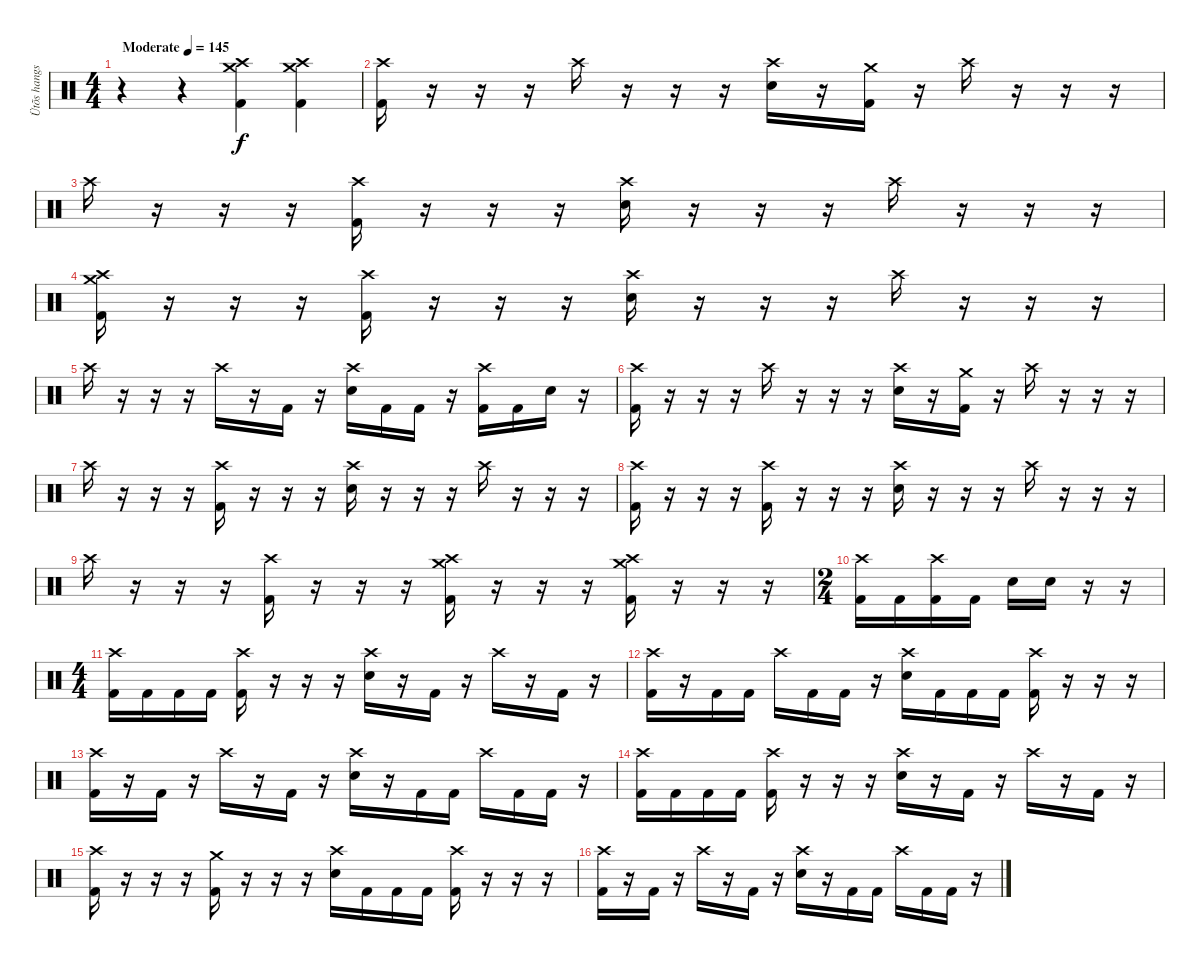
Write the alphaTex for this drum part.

\track ("Ütõs hangszer" "Ütõs hangs") {instrument percussion}
\staff {score}
\articulation defaults
\ts (4 4)
\tempo (145 "Moderate")
\clef neutral
\ks c
r.4{dy f} r.4 ("Crash high (hit)" "Crash medium (hit)" "Kick (hit) 2").4 ("Crash high (hit)" "Crash medium (hit)" "Kick (hit) 2").4 |
("Crash high (hit)" "Kick (hit) 2").16 r.16 r.16 r.16 "Crash high (hit)".16 r.16 r.16 r.16 ("Crash high (hit)" "Electric Snare (hit)").16 r.16 ("Crash medium (hit)" "Kick (hit) 2").16 r.16 "Crash high (hit)".16 r.16 r.16 r.16 |
"Crash high (hit)".16 r.16 r.16 r.16 ("Crash high (hit)" "Kick (hit) 2").16 r.16 r.16 r.16 ("Crash high (hit)" "Electric Snare (hit)").16 r.16 r.16 r.16 "Crash high (hit)".16 r.16 r.16 r.16 |
("Crash high (hit)" "Crash medium (hit)" "Kick (hit) 2").16 r.16 r.16 r.16 ("Crash high (hit)" "Kick (hit) 2").16 r.16 r.16 r.16 ("Crash high (hit)" "Electric Snare (hit)").16 r.16 r.16 r.16 "Crash high (hit)".16 r.16 r.16 r.16 |
"Crash high (hit)".16 r.16 r.16 r.16 "Crash high (hit)".16 r.16 "Kick (hit) 2".16 r.16 ("Crash high (hit)" "Electric Snare (hit)").16 "Kick (hit) 2".16 "Kick (hit) 2".16 r.16 ("Crash high (hit)" "Kick (hit) 2").16 "Kick (hit) 2".16 "Electric Snare (hit)".16 r.16 |
("Crash high (hit)" "Kick (hit) 2").16 r.16 r.16 r.16 "Crash high (hit)".16 r.16 r.16 r.16 ("Crash high (hit)" "Electric Snare (hit)").16 r.16 ("Crash medium (hit)" "Kick (hit) 2").16 r.16 "Crash high (hit)".16 r.16 r.16 r.16 |
"Crash high (hit)".16 r.16 r.16 r.16 ("Crash high (hit)" "Kick (hit) 2").16 r.16 r.16 r.16 ("Crash high (hit)" "Electric Snare (hit)").16 r.16 r.16 r.16 "Crash high (hit)".16 r.16 r.16 r.16 |
("Crash high (hit)" "Kick (hit) 2").16 r.16 r.16 r.16 ("Crash high (hit)" "Kick (hit) 2").16 r.16 r.16 r.16 ("Crash high (hit)" "Electric Snare (hit)").16 r.16 r.16 r.16 "Crash high (hit)".16 r.16 r.16 r.16 |
"Crash high (hit)".16 r.16 r.16 r.16 ("Crash high (hit)" "Kick (hit) 2").16 r.16 r.16 r.16 ("Crash high (hit)" "Crash medium (hit)" "Kick (hit) 2").16 r.16 r.16 r.16 ("Crash high (hit)" "Crash medium (hit)" "Kick (hit) 2").16 r.16 r.16 r.16 |
\ts (2 4)
("Crash high (hit)" "Kick (hit) 2").16 "Kick (hit) 2".16 ("Crash high (hit)" "Kick (hit) 2").16 "Kick (hit) 2".16 "Electric Snare (hit)".16 "Electric Snare (hit)".16 r.16 r.16 |
\ts (4 4)
("Crash high (hit)" "Kick (hit) 2").16 "Kick (hit) 2".16 "Kick (hit) 2".16 "Kick (hit) 2".16 ("Crash high (hit)" "Kick (hit) 2").16 r.16 r.16 r.16 ("Crash high (hit)" "Electric Snare (hit)").16 r.16 "Kick (hit) 2".16 r.16 "Crash high (hit)".16 r.16 "Kick (hit) 2".16 r.16 |
("Crash high (hit)" "Kick (hit) 2").16 r.16 "Kick (hit) 2".16 "Kick (hit) 2".16 "Crash high (hit)".16 "Kick (hit) 2".16 "Kick (hit) 2".16 r.16 ("Crash high (hit)" "Electric Snare (hit)").16 "Kick (hit) 2".16 "Kick (hit) 2".16 "Kick (hit) 2".16 ("Crash high (hit)" "Kick (hit) 2").16 r.16 r.16 r.16 |
("Crash high (hit)" "Kick (hit) 2").16 r.16 "Kick (hit) 2".16 r.16 "Crash high (hit)".16 r.16 "Kick (hit) 2".16 r.16 ("Crash high (hit)" "Electric Snare (hit)").16 r.16 "Kick (hit) 2".16 "Kick (hit) 2".16 "Crash high (hit)".16 "Kick (hit) 2".16 "Kick (hit) 2".16 r.16 |
("Crash high (hit)" "Kick (hit) 2").16 "Kick (hit) 2".16 "Kick (hit) 2".16 "Kick (hit) 2".16 ("Crash high (hit)" "Kick (hit) 2").16 r.16 r.16 r.16 ("Crash high (hit)" "Electric Snare (hit)").16 r.16 "Kick (hit) 2".16 r.16 "Crash high (hit)".16 r.16 "Kick (hit) 2".16 r.16 |
("Crash high (hit)" "Kick (hit) 2").16 r.16 r.16 r.16 ("Crash medium (hit)" "Kick (hit) 2").16 r.16 r.16 r.16 ("Crash high (hit)" "Electric Snare (hit)").16 "Kick (hit) 2".16 "Kick (hit) 2".16 "Kick (hit) 2".16 ("Crash high (hit)" "Kick (hit) 2").16 r.16 r.16 r.16 |
("Crash high (hit)" "Kick (hit) 2").16 r.16 "Kick (hit) 2".16 r.16 "Crash high (hit)".16 r.16 "Kick (hit) 2".16 r.16 ("Crash high (hit)" "Electric Snare (hit)").16 r.16 "Kick (hit) 2".16 "Kick (hit) 2".16 "Crash high (hit)".16 "Kick (hit) 2".16 "Kick (hit) 2".16 r.16
